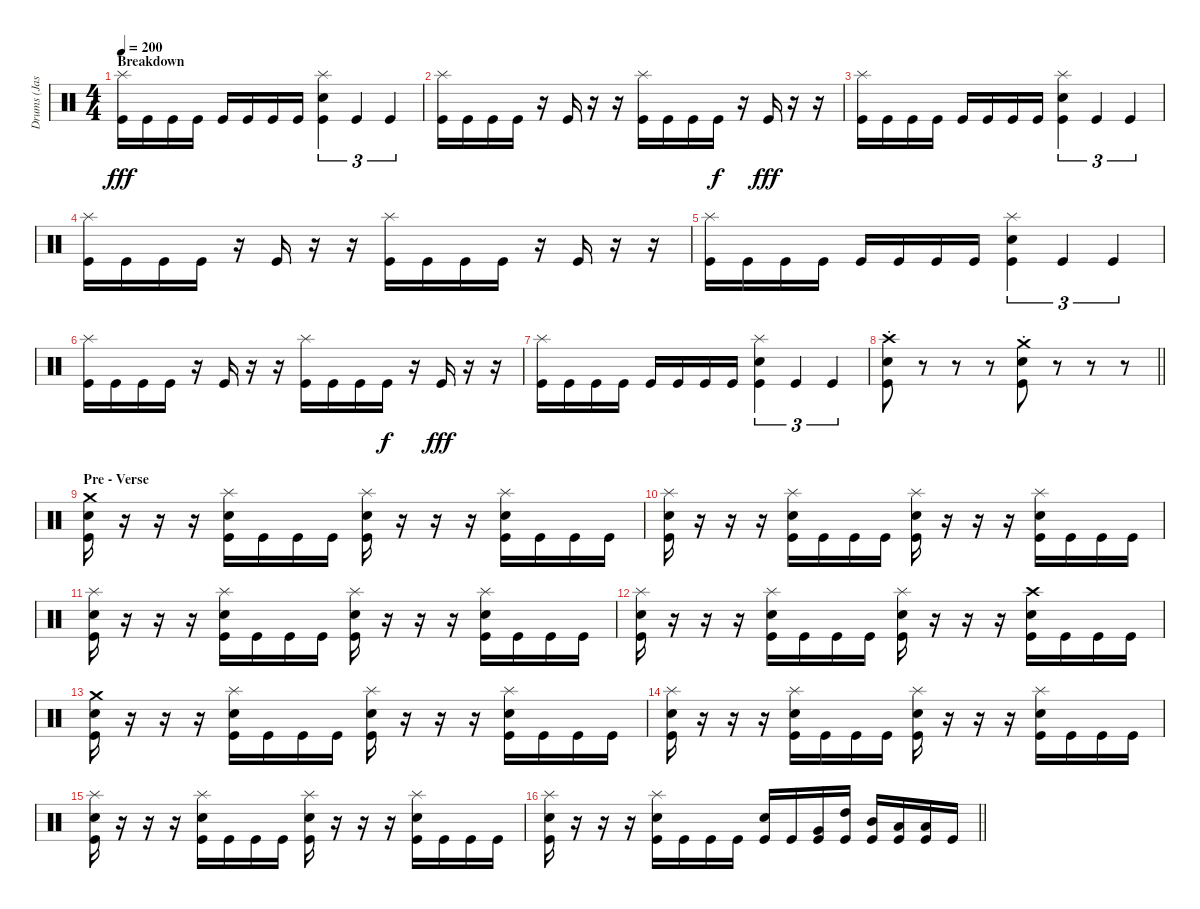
\track ("Drums (Jason Costa)" "Drums (Jas") {instrument percussion}
\staff {score}
\articulation defaults
\ts (4 4)
\section ("" "Breakdown")
\tempo 200
\clef neutral
\ks c
("Splash (hit)" "Kick (hit)").16{dy fff} "Kick (hit)".16 "Kick (hit)".16 "Kick (hit)".16 "Kick (hit)".16 "Kick (hit)".16 "Kick (hit)".16 "Kick (hit)".16 ("Splash (hit)" "Electric Snare (hit)" "Kick (hit)").4{tu (3 2)} "Kick (hit)".4{tu (3 2)} "Kick (hit)".4{tu (3 2)} |
("Splash (hit)" "Kick (hit)").16 "Kick (hit)".16 "Kick (hit)".16 "Kick (hit)".16 r.16 "Kick (hit)".16 r.16 r.16 ("Splash (hit)" "Kick (hit)").16 "Kick (hit)".16 "Kick (hit)".16 "Kick (hit)".16{dy f} r.16 "Kick (hit)".16{dy fff} r.16 r.16 |
("Splash (hit)" "Kick (hit)").16 "Kick (hit)".16 "Kick (hit)".16 "Kick (hit)".16 "Kick (hit)".16 "Kick (hit)".16 "Kick (hit)".16 "Kick (hit)".16 ("Splash (hit)" "Electric Snare (hit)" "Kick (hit)").4{tu (3 2)} "Kick (hit)".4{tu (3 2)} "Kick (hit)".4{tu (3 2)} |
("Splash (hit)" "Kick (hit)").16 "Kick (hit)".16 "Kick (hit)".16 "Kick (hit)".16 r.16 "Kick (hit)".16 r.16 r.16 ("Splash (hit)" "Kick (hit)").16 "Kick (hit)".16 "Kick (hit)".16 "Kick (hit)".16 r.16 "Kick (hit)".16 r.16 r.16 |
("Splash (hit)" "Kick (hit)").16 "Kick (hit)".16 "Kick (hit)".16 "Kick (hit)".16 "Kick (hit)".16 "Kick (hit)".16 "Kick (hit)".16 "Kick (hit)".16 ("Splash (hit)" "Electric Snare (hit)" "Kick (hit)").4{tu (3 2)} "Kick (hit)".4{tu (3 2)} "Kick (hit)".4{tu (3 2)} |
("Splash (hit)" "Kick (hit)").16 "Kick (hit)".16 "Kick (hit)".16 "Kick (hit)".16 r.16 "Kick (hit)".16 r.16 r.16 ("Splash (hit)" "Kick (hit)").16 "Kick (hit)".16 "Kick (hit)".16 "Kick (hit)".16{dy f} r.16 "Kick (hit)".16{dy fff} r.16 r.16 |
("Splash (hit)" "Kick (hit)").16 "Kick (hit)".16 "Kick (hit)".16 "Kick (hit)".16 "Kick (hit)".16 "Kick (hit)".16 "Kick (hit)".16 "Kick (hit)".16 ("Splash (hit)" "Electric Snare (hit)" "Kick (hit)").4{tu (3 2)} "Kick (hit)".4{tu (3 2)} "Kick (hit)".4{tu (3 2)} |
\barLineRight lightlight
("Crash high (hit)"{st} "Electric Snare (hit)" "Kick (hit)").8 r.8 r.8 r.8 ("Crash medium (hit)"{st} "Electric Snare (hit)" "Kick (hit)").8 r.8 r.8 r.8 |
\section ("" "Pre - Verse")
("Crash medium (hit)" "Electric Snare (hit)" "Kick (hit)").16 r.16 r.16 r.16 ("Splash (hit)" "Electric Snare (hit)" "Kick (hit)").16 "Kick (hit)".16 "Kick (hit)".16 "Kick (hit)".16 ("Splash (hit)" "Electric Snare (hit)" "Kick (hit)").16 r.16 r.16 r.16 ("Splash (hit)" "Electric Snare (hit)" "Kick (hit)").16 "Kick (hit)".16 "Kick (hit)".16 "Kick (hit)".16 |
("Splash (hit)" "Electric Snare (hit)" "Kick (hit)").16 r.16 r.16 r.16 ("Splash (hit)" "Electric Snare (hit)" "Kick (hit)").16 "Kick (hit)".16 "Kick (hit)".16 "Kick (hit)".16 ("Splash (hit)" "Electric Snare (hit)" "Kick (hit)").16 r.16 r.16 r.16 ("Splash (hit)" "Electric Snare (hit)" "Kick (hit)").16 "Kick (hit)".16 "Kick (hit)".16 "Kick (hit)".16 |
("Splash (hit)" "Electric Snare (hit)" "Kick (hit)").16 r.16 r.16 r.16 ("Splash (hit)" "Electric Snare (hit)" "Kick (hit)").16 "Kick (hit)".16 "Kick (hit)".16 "Kick (hit)".16 ("Splash (hit)" "Electric Snare (hit)" "Kick (hit)").16 r.16 r.16 r.16 ("Splash (hit)" "Electric Snare (hit)" "Kick (hit)").16 "Kick (hit)".16 "Kick (hit)".16 "Kick (hit)".16 |
("Splash (hit)" "Electric Snare (hit)" "Kick (hit)").16 r.16 r.16 r.16 ("Splash (hit)" "Electric Snare (hit)" "Kick (hit)").16 "Kick (hit)".16 "Kick (hit)".16 "Kick (hit)".16 ("Splash (hit)" "Electric Snare (hit)" "Kick (hit)").16 r.16 r.16 r.16 ("Crash high (hit)" "Electric Snare (hit)" "Kick (hit)").16 "Kick (hit)".16 "Kick (hit)".16 "Kick (hit)".16 |
("Crash medium (hit)" "Electric Snare (hit)" "Kick (hit)").16 r.16 r.16 r.16 ("Splash (hit)" "Electric Snare (hit)" "Kick (hit)").16 "Kick (hit)".16 "Kick (hit)".16 "Kick (hit)".16 ("Splash (hit)" "Electric Snare (hit)" "Kick (hit)").16 r.16 r.16 r.16 ("Splash (hit)" "Electric Snare (hit)" "Kick (hit)").16 "Kick (hit)".16 "Kick (hit)".16 "Kick (hit)".16 |
("Splash (hit)" "Electric Snare (hit)" "Kick (hit)").16 r.16 r.16 r.16 ("Splash (hit)" "Electric Snare (hit)" "Kick (hit)").16 "Kick (hit)".16 "Kick (hit)".16 "Kick (hit)".16 ("Splash (hit)" "Electric Snare (hit)" "Kick (hit)").16 r.16 r.16 r.16 ("Splash (hit)" "Electric Snare (hit)" "Kick (hit)").16 "Kick (hit)".16 "Kick (hit)".16 "Kick (hit)".16 |
("Splash (hit)" "Electric Snare (hit)" "Kick (hit)").16 r.16 r.16 r.16 ("Splash (hit)" "Electric Snare (hit)" "Kick (hit)").16 "Kick (hit)".16 "Kick (hit)".16 "Kick (hit)".16 ("Splash (hit)" "Electric Snare (hit)" "Kick (hit)").16 r.16 r.16 r.16 ("Splash (hit)" "Electric Snare (hit)" "Kick (hit)").16 "Kick (hit)".16 "Kick (hit)".16 "Kick (hit)".16 |
\barLineRight lightlight
("Splash (hit)" "Electric Snare (hit)" "Kick (hit)").16 r.16 r.16 r.16 ("Splash (hit)" "Electric Snare (hit)" "Kick (hit)").16 "Kick (hit)".16 "Kick (hit)".16 "Kick (hit)".16 ("Electric Snare (hit)" "Kick (hit)").16 "Kick (hit)".16 ("Very Low Tom (hit)" "Kick (hit)").16 ("High Tom (hit)" "Kick (hit)").16 ("Mid Tom (hit)" "Kick (hit)").16 ("Low Floor Tom (hit)" "Kick (hit)").16 ("Low Tom (hit)" "Kick (hit)").16 "Kick (hit)".16
